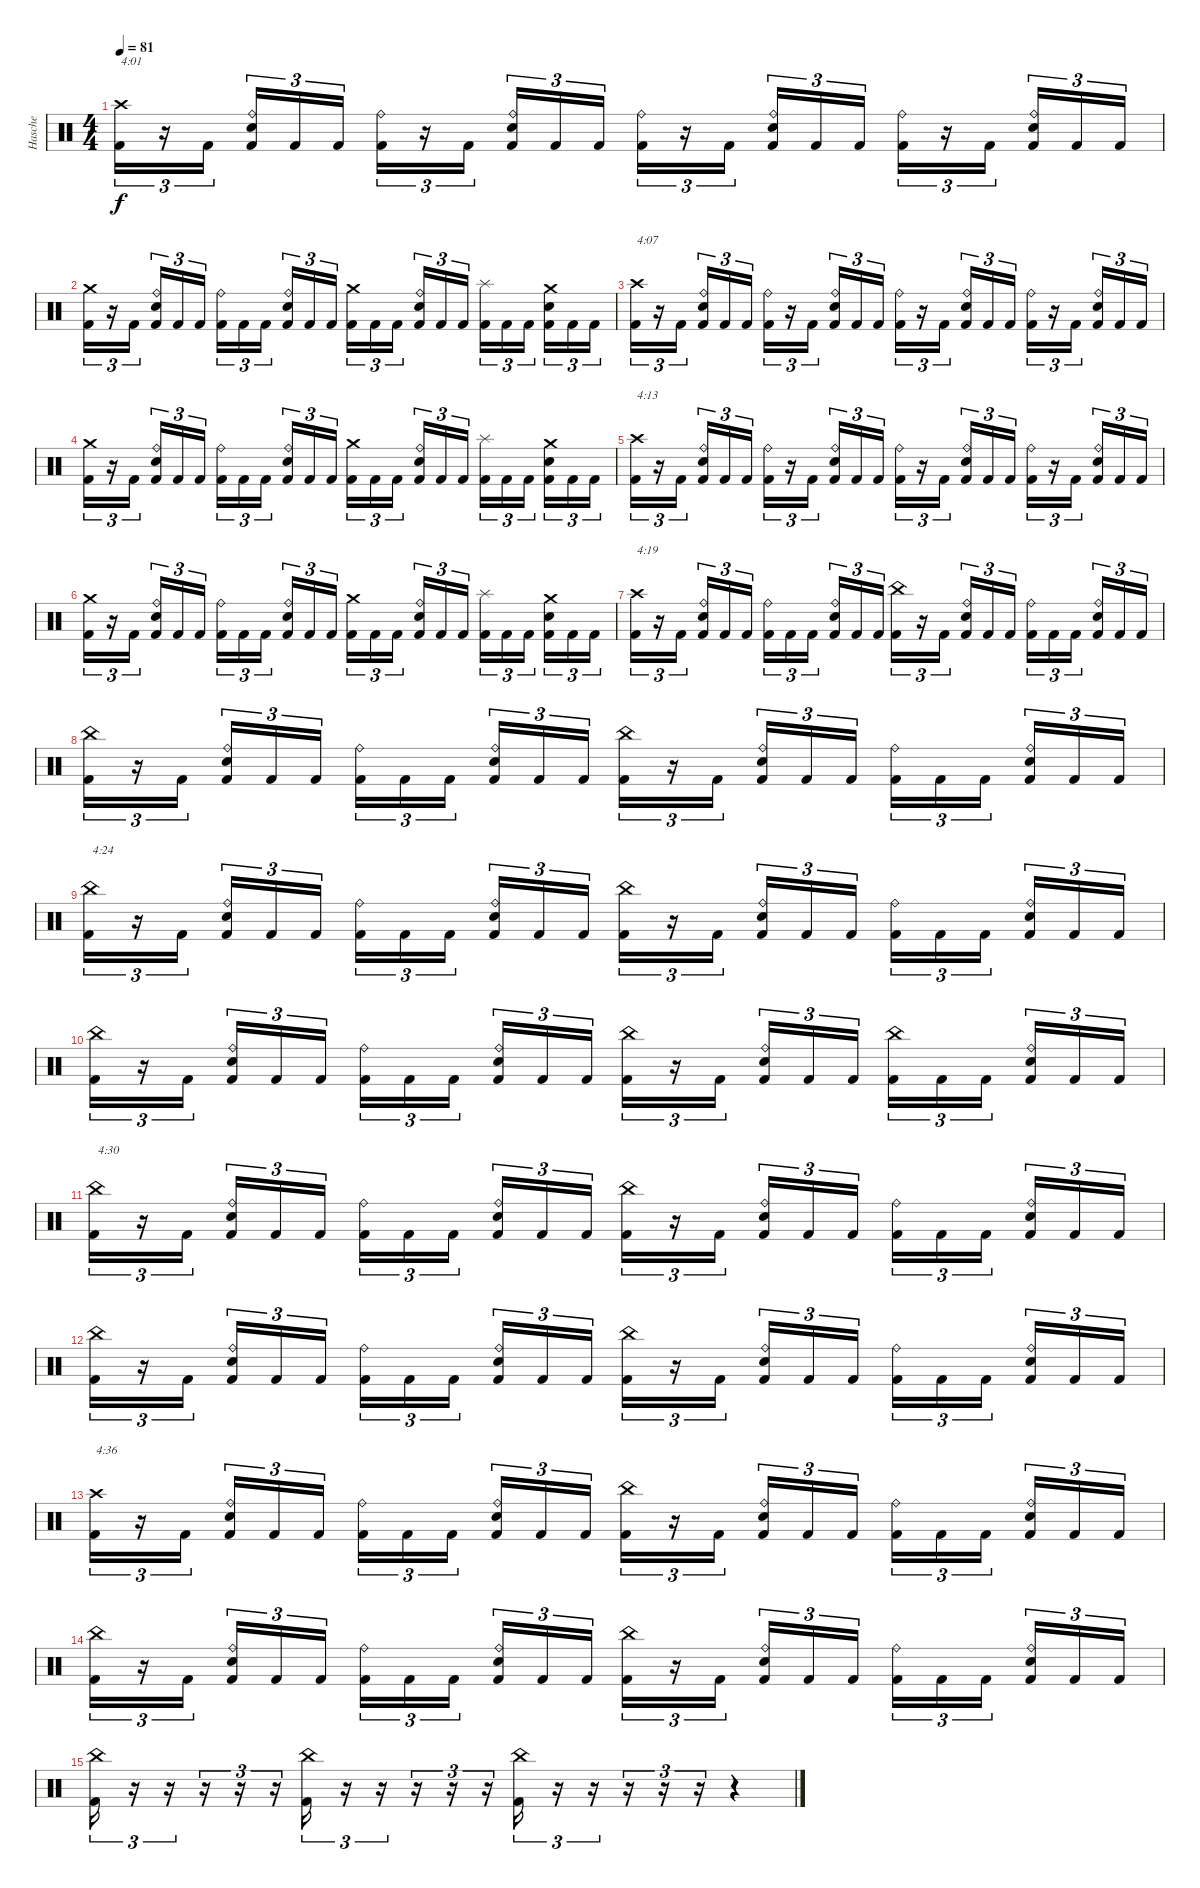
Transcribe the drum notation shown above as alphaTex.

\track ("Hasche" "Hasche") {instrument percussion}
\staff {score}
\articulation defaults
\ts (4 4)
\tempo 81
\clef neutral
\ks c
("Crash high (hit)" "Kick (hit) 2").16{tu (3 2) txt "4:01" dy f} r.16{tu (3 2)} "Kick (hit) 2".16{tu (3 2) beam splitsecondary} ("Ride (bell)" "Snare (hit) 2" "Kick (hit) 2").16{tu (3 2)} "Kick (hit) 2".16{tu (3 2)} "Kick (hit) 2".16{tu (3 2)} ("Ride (bell)" "Kick (hit) 2").16{tu (3 2)} r.16{tu (3 2)} "Kick (hit) 2".16{tu (3 2) beam splitsecondary} ("Ride (bell)" "Snare (hit) 2" "Kick (hit) 2").16{tu (3 2)} "Kick (hit) 2".16{tu (3 2)} "Kick (hit) 2".16{tu (3 2)} ("Ride (bell)" "Kick (hit) 2").16{tu (3 2)} r.16{tu (3 2)} "Kick (hit) 2".16{tu (3 2) beam splitsecondary} ("Ride (bell)" "Snare (hit) 2" "Kick (hit) 2").16{tu (3 2)} "Kick (hit) 2".16{tu (3 2)} "Kick (hit) 2".16{tu (3 2)} ("Ride (bell)" "Kick (hit) 2").16{tu (3 2)} r.16{tu (3 2)} "Kick (hit) 2".16{tu (3 2) beam splitsecondary} ("Ride (bell)" "Snare (hit) 2" "Kick (hit) 2").16{tu (3 2)} "Kick (hit) 2".16{tu (3 2)} "Kick (hit) 2".16{tu (3 2)} |
("Crash medium (hit)" "Kick (hit) 2").16{tu (3 2)} r.16{tu (3 2)} "Kick (hit) 2".16{tu (3 2) beam splitsecondary} ("Ride (bell)" "Snare (hit) 2" "Kick (hit) 2").16{tu (3 2)} "Kick (hit) 2".16{tu (3 2)} "Kick (hit) 2".16{tu (3 2)} ("Ride (bell)" "Kick (hit) 2").16{tu (3 2)} "Kick (hit) 2".16{tu (3 2)} "Kick (hit) 2".16{tu (3 2) beam splitsecondary} ("Ride (bell)" "Snare (hit) 2" "Kick (hit) 2").16{tu (3 2)} "Kick (hit) 2".16{tu (3 2)} "Kick (hit) 2".16{tu (3 2)} ("Crash medium (hit)" "Kick (hit) 2").16{tu (3 2)} "Kick (hit) 2".16{tu (3 2)} "Kick (hit) 2".16{tu (3 2) beam splitsecondary} ("Ride (bell)" "Snare (hit) 2" "Kick (hit) 2").16{tu (3 2)} "Kick (hit) 2".16{tu (3 2)} "Kick (hit) 2".16{tu (3 2)} ("Splash (hit)" "Kick (hit) 2").16{tu (3 2)} "Kick (hit) 2".16{tu (3 2)} "Kick (hit) 2".16{tu (3 2) beam splitsecondary} ("Crash medium (hit)" "Snare (hit) 2" "Kick (hit) 2").16{tu (3 2)} "Kick (hit) 2".16{tu (3 2)} "Kick (hit) 2".16{tu (3 2)} |
("Crash high (hit)" "Kick (hit) 2").16{tu (3 2) txt "4:07"} r.16{tu (3 2)} "Kick (hit) 2".16{tu (3 2) beam splitsecondary} ("Ride (bell)" "Snare (hit) 2" "Kick (hit) 2").16{tu (3 2)} "Kick (hit) 2".16{tu (3 2)} "Kick (hit) 2".16{tu (3 2)} ("Ride (bell)" "Kick (hit) 2").16{tu (3 2)} r.16{tu (3 2)} "Kick (hit) 2".16{tu (3 2) beam splitsecondary} ("Ride (bell)" "Snare (hit) 2" "Kick (hit) 2").16{tu (3 2)} "Kick (hit) 2".16{tu (3 2)} "Kick (hit) 2".16{tu (3 2)} ("Ride (bell)" "Kick (hit) 2").16{tu (3 2)} r.16{tu (3 2)} "Kick (hit) 2".16{tu (3 2) beam splitsecondary} ("Ride (bell)" "Snare (hit) 2" "Kick (hit) 2").16{tu (3 2)} "Kick (hit) 2".16{tu (3 2)} "Kick (hit) 2".16{tu (3 2)} ("Ride (bell)" "Kick (hit) 2").16{tu (3 2)} r.16{tu (3 2)} "Kick (hit) 2".16{tu (3 2) beam splitsecondary} ("Ride (bell)" "Snare (hit) 2" "Kick (hit) 2").16{tu (3 2)} "Kick (hit) 2".16{tu (3 2)} "Kick (hit) 2".16{tu (3 2)} |
("Crash medium (hit)" "Kick (hit) 2").16{tu (3 2)} r.16{tu (3 2)} "Kick (hit) 2".16{tu (3 2) beam splitsecondary} ("Ride (bell)" "Snare (hit) 2" "Kick (hit) 2").16{tu (3 2)} "Kick (hit) 2".16{tu (3 2)} "Kick (hit) 2".16{tu (3 2)} ("Ride (bell)" "Kick (hit) 2").16{tu (3 2)} "Kick (hit) 2".16{tu (3 2)} "Kick (hit) 2".16{tu (3 2) beam splitsecondary} ("Ride (bell)" "Snare (hit) 2" "Kick (hit) 2").16{tu (3 2)} "Kick (hit) 2".16{tu (3 2)} "Kick (hit) 2".16{tu (3 2)} ("Crash medium (hit)" "Kick (hit) 2").16{tu (3 2)} "Kick (hit) 2".16{tu (3 2)} "Kick (hit) 2".16{tu (3 2) beam splitsecondary} ("Ride (bell)" "Snare (hit) 2" "Kick (hit) 2").16{tu (3 2)} "Kick (hit) 2".16{tu (3 2)} "Kick (hit) 2".16{tu (3 2)} ("Splash (hit)" "Kick (hit) 2").16{tu (3 2)} "Kick (hit) 2".16{tu (3 2)} "Kick (hit) 2".16{tu (3 2) beam splitsecondary} ("Crash medium (hit)" "Snare (hit) 2" "Kick (hit) 2").16{tu (3 2)} "Kick (hit) 2".16{tu (3 2)} "Kick (hit) 2".16{tu (3 2)} |
("Crash high (hit)" "Kick (hit) 2").16{tu (3 2) txt "4:13"} r.16{tu (3 2)} "Kick (hit) 2".16{tu (3 2) beam splitsecondary} ("Ride (bell)" "Snare (hit) 2" "Kick (hit) 2").16{tu (3 2)} "Kick (hit) 2".16{tu (3 2)} "Kick (hit) 2".16{tu (3 2)} ("Ride (bell)" "Kick (hit) 2").16{tu (3 2)} r.16{tu (3 2)} "Kick (hit) 2".16{tu (3 2) beam splitsecondary} ("Ride (bell)" "Snare (hit) 2" "Kick (hit) 2").16{tu (3 2)} "Kick (hit) 2".16{tu (3 2)} "Kick (hit) 2".16{tu (3 2)} ("Ride (bell)" "Kick (hit) 2").16{tu (3 2)} r.16{tu (3 2)} "Kick (hit) 2".16{tu (3 2) beam splitsecondary} ("Ride (bell)" "Snare (hit) 2" "Kick (hit) 2").16{tu (3 2)} "Kick (hit) 2".16{tu (3 2)} "Kick (hit) 2".16{tu (3 2)} ("Ride (bell)" "Kick (hit) 2").16{tu (3 2)} r.16{tu (3 2)} "Kick (hit) 2".16{tu (3 2) beam splitsecondary} ("Ride (bell)" "Snare (hit) 2" "Kick (hit) 2").16{tu (3 2)} "Kick (hit) 2".16{tu (3 2)} "Kick (hit) 2".16{tu (3 2)} |
("Crash medium (hit)" "Kick (hit) 2").16{tu (3 2)} r.16{tu (3 2)} "Kick (hit) 2".16{tu (3 2) beam splitsecondary} ("Ride (bell)" "Snare (hit) 2" "Kick (hit) 2").16{tu (3 2)} "Kick (hit) 2".16{tu (3 2)} "Kick (hit) 2".16{tu (3 2)} ("Ride (bell)" "Kick (hit) 2").16{tu (3 2)} "Kick (hit) 2".16{tu (3 2)} "Kick (hit) 2".16{tu (3 2) beam splitsecondary} ("Ride (bell)" "Snare (hit) 2" "Kick (hit) 2").16{tu (3 2)} "Kick (hit) 2".16{tu (3 2)} "Kick (hit) 2".16{tu (3 2)} ("Crash medium (hit)" "Kick (hit) 2").16{tu (3 2)} "Kick (hit) 2".16{tu (3 2)} "Kick (hit) 2".16{tu (3 2) beam splitsecondary} ("Ride (bell)" "Snare (hit) 2" "Kick (hit) 2").16{tu (3 2)} "Kick (hit) 2".16{tu (3 2)} "Kick (hit) 2".16{tu (3 2)} ("Splash (hit)" "Kick (hit) 2").16{tu (3 2)} "Kick (hit) 2".16{tu (3 2)} "Kick (hit) 2".16{tu (3 2) beam splitsecondary} ("Crash medium (hit)" "Snare (hit) 2" "Kick (hit) 2").16{tu (3 2)} "Kick (hit) 2".16{tu (3 2)} "Kick (hit) 2".16{tu (3 2)} |
("Crash high (hit)" "Kick (hit) 2").16{tu (3 2) txt "4:19"} r.16{tu (3 2)} "Kick (hit) 2".16{tu (3 2) beam splitsecondary} ("Ride (bell)" "Snare (hit) 2" "Kick (hit) 2").16{tu (3 2)} "Kick (hit) 2".16{tu (3 2)} "Kick (hit) 2".16{tu (3 2)} ("Ride (bell)" "Kick (hit) 2").16{tu (3 2)} "Kick (hit) 2".16{tu (3 2)} "Kick (hit) 2".16{tu (3 2) beam splitsecondary} ("Ride (bell)" "Snare (hit) 2" "Kick (hit) 2").16{tu (3 2)} "Kick (hit) 2".16{tu (3 2)} "Kick (hit) 2".16{tu (3 2)} ("China (hit)" "Kick (hit) 2").16{tu (3 2)} r.16{tu (3 2)} "Kick (hit) 2".16{tu (3 2) beam splitsecondary} ("Ride (bell)" "Snare (hit) 2" "Kick (hit) 2").16{tu (3 2)} "Kick (hit) 2".16{tu (3 2)} "Kick (hit) 2".16{tu (3 2)} ("Ride (bell)" "Kick (hit) 2").16{tu (3 2)} "Kick (hit) 2".16{tu (3 2)} "Kick (hit) 2".16{tu (3 2) beam splitsecondary} ("Ride (bell)" "Snare (hit) 2" "Kick (hit) 2").16{tu (3 2)} "Kick (hit) 2".16{tu (3 2)} "Kick (hit) 2".16{tu (3 2)} |
("China (hit)" "Kick (hit) 2").16{tu (3 2)} r.16{tu (3 2)} "Kick (hit) 2".16{tu (3 2) beam splitsecondary} ("Ride (bell)" "Snare (hit) 2" "Kick (hit) 2").16{tu (3 2)} "Kick (hit) 2".16{tu (3 2)} "Kick (hit) 2".16{tu (3 2)} ("Ride (bell)" "Kick (hit) 2").16{tu (3 2)} "Kick (hit) 2".16{tu (3 2)} "Kick (hit) 2".16{tu (3 2) beam splitsecondary} ("Ride (bell)" "Snare (hit) 2" "Kick (hit) 2").16{tu (3 2)} "Kick (hit) 2".16{tu (3 2)} "Kick (hit) 2".16{tu (3 2)} ("China (hit)" "Kick (hit) 2").16{tu (3 2)} r.16{tu (3 2)} "Kick (hit) 2".16{tu (3 2) beam splitsecondary} ("Ride (bell)" "Snare (hit) 2" "Kick (hit) 2").16{tu (3 2)} "Kick (hit) 2".16{tu (3 2)} "Kick (hit) 2".16{tu (3 2)} ("Ride (bell)" "Kick (hit) 2").16{tu (3 2)} "Kick (hit) 2".16{tu (3 2)} "Kick (hit) 2".16{tu (3 2) beam splitsecondary} ("Ride (bell)" "Snare (hit) 2" "Kick (hit) 2").16{tu (3 2)} "Kick (hit) 2".16{tu (3 2)} "Kick (hit) 2".16{tu (3 2)} |
("China (hit)" "Kick (hit) 2").16{tu (3 2) txt "4:24"} r.16{tu (3 2)} "Kick (hit) 2".16{tu (3 2) beam splitsecondary} ("Ride (bell)" "Snare (hit) 2" "Kick (hit) 2").16{tu (3 2)} "Kick (hit) 2".16{tu (3 2)} "Kick (hit) 2".16{tu (3 2)} ("Ride (bell)" "Kick (hit) 2").16{tu (3 2)} "Kick (hit) 2".16{tu (3 2)} "Kick (hit) 2".16{tu (3 2) beam splitsecondary} ("Ride (bell)" "Snare (hit) 2" "Kick (hit) 2").16{tu (3 2)} "Kick (hit) 2".16{tu (3 2)} "Kick (hit) 2".16{tu (3 2)} ("China (hit)" "Kick (hit) 2").16{tu (3 2)} r.16{tu (3 2)} "Kick (hit) 2".16{tu (3 2) beam splitsecondary} ("Ride (bell)" "Snare (hit) 2" "Kick (hit) 2").16{tu (3 2)} "Kick (hit) 2".16{tu (3 2)} "Kick (hit) 2".16{tu (3 2)} ("Ride (bell)" "Kick (hit) 2").16{tu (3 2)} "Kick (hit) 2".16{tu (3 2)} "Kick (hit) 2".16{tu (3 2) beam splitsecondary} ("Ride (bell)" "Snare (hit) 2" "Kick (hit) 2").16{tu (3 2)} "Kick (hit) 2".16{tu (3 2)} "Kick (hit) 2".16{tu (3 2)} |
("China (hit)" "Kick (hit) 2").16{tu (3 2)} r.16{tu (3 2)} "Kick (hit) 2".16{tu (3 2) beam splitsecondary} ("Ride (bell)" "Snare (hit) 2" "Kick (hit) 2").16{tu (3 2)} "Kick (hit) 2".16{tu (3 2)} "Kick (hit) 2".16{tu (3 2)} ("Ride (bell)" "Kick (hit) 2").16{tu (3 2)} "Kick (hit) 2".16{tu (3 2)} "Kick (hit) 2".16{tu (3 2) beam splitsecondary} ("Ride (bell)" "Snare (hit) 2" "Kick (hit) 2").16{tu (3 2)} "Kick (hit) 2".16{tu (3 2)} "Kick (hit) 2".16{tu (3 2)} ("China (hit)" "Kick (hit) 2").16{tu (3 2)} r.16{tu (3 2)} "Kick (hit) 2".16{tu (3 2) beam splitsecondary} ("Ride (bell)" "Snare (hit) 2" "Kick (hit) 2").16{tu (3 2)} "Kick (hit) 2".16{tu (3 2)} "Kick (hit) 2".16{tu (3 2)} ("China (hit)" "Kick (hit) 2").16{tu (3 2)} "Kick (hit) 2".16{tu (3 2)} "Kick (hit) 2".16{tu (3 2) beam splitsecondary} ("Ride (bell)" "Snare (hit) 2" "Kick (hit) 2").16{tu (3 2)} "Kick (hit) 2".16{tu (3 2)} "Kick (hit) 2".16{tu (3 2)} |
("China (hit)" "Kick (hit) 2").16{tu (3 2) txt "4:30"} r.16{tu (3 2)} "Kick (hit) 2".16{tu (3 2) beam splitsecondary} ("Ride (bell)" "Snare (hit) 2" "Kick (hit) 2").16{tu (3 2)} "Kick (hit) 2".16{tu (3 2)} "Kick (hit) 2".16{tu (3 2)} ("Ride (bell)" "Kick (hit) 2").16{tu (3 2)} "Kick (hit) 2".16{tu (3 2)} "Kick (hit) 2".16{tu (3 2) beam splitsecondary} ("Ride (bell)" "Snare (hit) 2" "Kick (hit) 2").16{tu (3 2)} "Kick (hit) 2".16{tu (3 2)} "Kick (hit) 2".16{tu (3 2)} ("China (hit)" "Kick (hit) 2").16{tu (3 2)} r.16{tu (3 2)} "Kick (hit) 2".16{tu (3 2) beam splitsecondary} ("Ride (bell)" "Snare (hit) 2" "Kick (hit) 2").16{tu (3 2)} "Kick (hit) 2".16{tu (3 2)} "Kick (hit) 2".16{tu (3 2)} ("Ride (bell)" "Kick (hit) 2").16{tu (3 2)} "Kick (hit) 2".16{tu (3 2)} "Kick (hit) 2".16{tu (3 2) beam splitsecondary} ("Ride (bell)" "Snare (hit) 2" "Kick (hit) 2").16{tu (3 2)} "Kick (hit) 2".16{tu (3 2)} "Kick (hit) 2".16{tu (3 2)} |
("China (hit)" "Kick (hit) 2").16{tu (3 2)} r.16{tu (3 2)} "Kick (hit) 2".16{tu (3 2) beam splitsecondary} ("Ride (bell)" "Snare (hit) 2" "Kick (hit) 2").16{tu (3 2)} "Kick (hit) 2".16{tu (3 2)} "Kick (hit) 2".16{tu (3 2)} ("Ride (bell)" "Kick (hit) 2").16{tu (3 2)} "Kick (hit) 2".16{tu (3 2)} "Kick (hit) 2".16{tu (3 2) beam splitsecondary} ("Ride (bell)" "Snare (hit) 2" "Kick (hit) 2").16{tu (3 2)} "Kick (hit) 2".16{tu (3 2)} "Kick (hit) 2".16{tu (3 2)} ("China (hit)" "Kick (hit) 2").16{tu (3 2)} r.16{tu (3 2)} "Kick (hit) 2".16{tu (3 2) beam splitsecondary} ("Ride (bell)" "Snare (hit) 2" "Kick (hit) 2").16{tu (3 2)} "Kick (hit) 2".16{tu (3 2)} "Kick (hit) 2".16{tu (3 2)} ("Ride (bell)" "Kick (hit) 2").16{tu (3 2)} "Kick (hit) 2".16{tu (3 2)} "Kick (hit) 2".16{tu (3 2) beam splitsecondary} ("Ride (bell)" "Snare (hit) 2" "Kick (hit) 2").16{tu (3 2)} "Kick (hit) 2".16{tu (3 2)} "Kick (hit) 2".16{tu (3 2)} |
("Crash high (hit)" "Kick (hit) 2").16{tu (3 2) txt "4:36"} r.16{tu (3 2)} "Kick (hit) 2".16{tu (3 2) beam splitsecondary} ("Ride (bell)" "Snare (hit) 2" "Kick (hit) 2").16{tu (3 2)} "Kick (hit) 2".16{tu (3 2)} "Kick (hit) 2".16{tu (3 2)} ("Ride (bell)" "Kick (hit) 2").16{tu (3 2)} "Kick (hit) 2".16{tu (3 2)} "Kick (hit) 2".16{tu (3 2) beam splitsecondary} ("Ride (bell)" "Snare (hit) 2" "Kick (hit) 2").16{tu (3 2)} "Kick (hit) 2".16{tu (3 2)} "Kick (hit) 2".16{tu (3 2)} ("China (hit)" "Kick (hit) 2").16{tu (3 2)} r.16{tu (3 2)} "Kick (hit) 2".16{tu (3 2) beam splitsecondary} ("Ride (bell)" "Snare (hit) 2" "Kick (hit) 2").16{tu (3 2)} "Kick (hit) 2".16{tu (3 2)} "Kick (hit) 2".16{tu (3 2)} ("Ride (bell)" "Kick (hit) 2").16{tu (3 2)} "Kick (hit) 2".16{tu (3 2)} "Kick (hit) 2".16{tu (3 2) beam splitsecondary} ("Ride (bell)" "Snare (hit) 2" "Kick (hit) 2").16{tu (3 2)} "Kick (hit) 2".16{tu (3 2)} "Kick (hit) 2".16{tu (3 2)} |
("China (hit)" "Kick (hit) 2").16{tu (3 2)} r.16{tu (3 2)} "Kick (hit) 2".16{tu (3 2) beam splitsecondary} ("Ride (bell)" "Snare (hit) 2" "Kick (hit) 2").16{tu (3 2)} "Kick (hit) 2".16{tu (3 2)} "Kick (hit) 2".16{tu (3 2)} ("Ride (bell)" "Kick (hit) 2").16{tu (3 2)} "Kick (hit) 2".16{tu (3 2)} "Kick (hit) 2".16{tu (3 2) beam splitsecondary} ("Ride (bell)" "Snare (hit) 2" "Kick (hit) 2").16{tu (3 2)} "Kick (hit) 2".16{tu (3 2)} "Kick (hit) 2".16{tu (3 2)} ("China (hit)" "Kick (hit) 2").16{tu (3 2)} r.16{tu (3 2)} "Kick (hit) 2".16{tu (3 2) beam splitsecondary} ("Ride (bell)" "Snare (hit) 2" "Kick (hit) 2").16{tu (3 2)} "Kick (hit) 2".16{tu (3 2)} "Kick (hit) 2".16{tu (3 2)} ("Ride (bell)" "Kick (hit) 2").16{tu (3 2)} "Kick (hit) 2".16{tu (3 2)} "Kick (hit) 2".16{tu (3 2) beam splitsecondary} ("Ride (bell)" "Snare (hit) 2" "Kick (hit) 2").16{tu (3 2)} "Kick (hit) 2".16{tu (3 2)} "Kick (hit) 2".16{tu (3 2)} |
("China (hit)" "Kick (hit) 2").16{tu (3 2)} r.16{tu (3 2)} r.16{tu (3 2)} r.16{tu (3 2)} r.16{tu (3 2)} r.16{tu (3 2)} ("China (hit)" "Kick (hit) 2").16{tu (3 2)} r.16{tu (3 2)} r.16{tu (3 2)} r.16{tu (3 2)} r.16{tu (3 2)} r.16{tu (3 2)} ("China (hit)" "Kick (hit) 2").16{tu (3 2)} r.16{tu (3 2)} r.16{tu (3 2)} r.16{tu (3 2)} r.16{tu (3 2)} r.16{tu (3 2)} r.4
